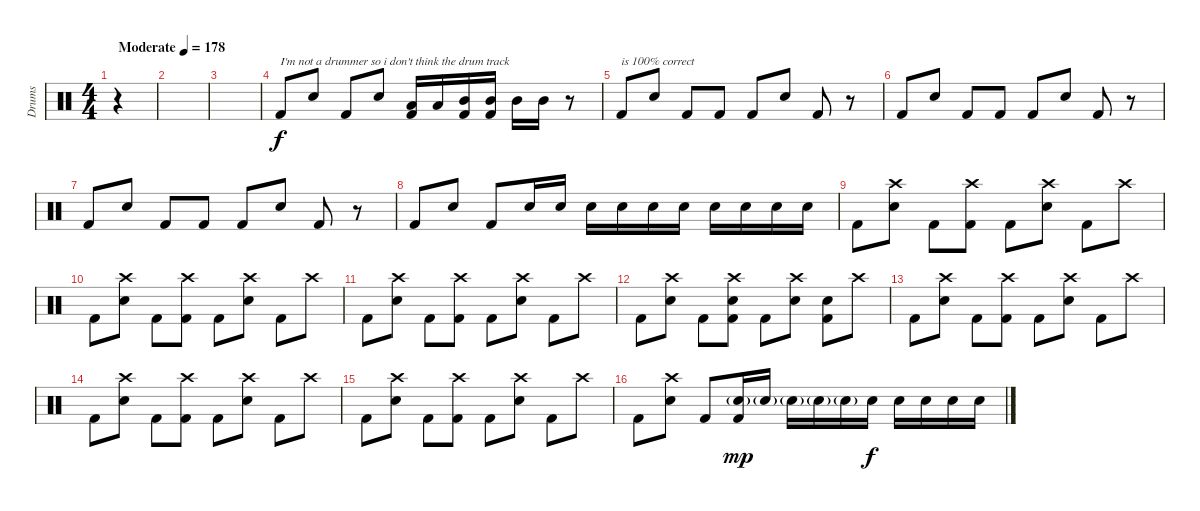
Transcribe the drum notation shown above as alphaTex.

\track ("Drums" "Drums") {instrument percussion}
\staff {score}
\articulation defaults
\ts (4 4)
\tempo (178 "Moderate")
\clef neutral
\ks c
r.4{dy f} |
|
|
"Kick (hit) 2".8{txt "I'm not a drummer so i don't think the drum track "} "Electric Snare (hit)".8 "Kick (hit) 2".8 "Electric Snare (hit)".8 ("Low Floor Tom (hit)" "Kick (hit) 2").16 "Low Floor Tom (hit)".16 ("Mid Tom (hit)" "Kick (hit) 2").16 ("Mid Tom (hit)" "Kick (hit) 2").16 "Mid Tom (hit)".16 "Mid Tom (hit)".16 r.8 |
"Kick (hit) 2".8{txt "is 100% correct"} "Electric Snare (hit)".8 "Kick (hit) 2".8 "Kick (hit) 2".8 "Kick (hit) 2".8 "Electric Snare (hit)".8 "Kick (hit) 2".8 r.8 |
"Kick (hit) 2".8 "Electric Snare (hit)".8 "Kick (hit) 2".8 "Kick (hit) 2".8 "Kick (hit) 2".8 "Electric Snare (hit)".8 "Kick (hit) 2".8 r.8 |
"Kick (hit) 2".8 "Electric Snare (hit)".8 "Kick (hit) 2".8 "Kick (hit) 2".8 "Kick (hit) 2".8 "Electric Snare (hit)".8 "Kick (hit) 2".8 r.8 |
"Kick (hit) 2".8 "Electric Snare (hit)".8 "Kick (hit) 2".8 "Electric Snare (hit)".16 "Electric Snare (hit)".16 "Electric Snare (hit)".16 "Electric Snare (hit)".16 "Electric Snare (hit)".16 "Electric Snare (hit)".16 "Electric Snare (hit)".16 "Electric Snare (hit)".16 "Electric Snare (hit)".16 "Electric Snare (hit)".16 |
"Kick (hit) 2".8 ("Crash high (hit)" "Electric Snare (hit)").8 "Kick (hit) 2".8 ("Crash high (hit)" "Kick (hit) 2").8 "Kick (hit) 2".8 ("Crash high (hit)" "Electric Snare (hit)").8 "Kick (hit) 2".8 "Crash high (hit)".8 |
"Kick (hit) 2".8 ("Crash high (hit)" "Electric Snare (hit)").8 "Kick (hit) 2".8 ("Crash high (hit)" "Kick (hit) 2").8 "Kick (hit) 2".8 ("Crash high (hit)" "Electric Snare (hit)").8 "Kick (hit) 2".8 "Crash high (hit)".8 |
"Kick (hit) 2".8 ("Crash high (hit)" "Electric Snare (hit)").8 "Kick (hit) 2".8 ("Crash high (hit)" "Kick (hit) 2").8 "Kick (hit) 2".8 ("Crash high (hit)" "Electric Snare (hit)").8 "Kick (hit) 2".8 "Crash high (hit)".8 |
"Kick (hit) 2".8 ("Crash high (hit)" "Electric Snare (hit)").8 "Kick (hit) 2".8 ("Crash high (hit)" "Electric Snare (hit)" "Kick (hit) 2").8 "Kick (hit) 2".8 ("Crash high (hit)" "Electric Snare (hit)").8 ("Electric Snare (hit)" "Kick (hit) 2").8 "Crash high (hit)".8 |
"Kick (hit) 2".8 ("Crash high (hit)" "Electric Snare (hit)").8 "Kick (hit) 2".8 ("Crash high (hit)" "Kick (hit) 2").8 "Kick (hit) 2".8 ("Crash high (hit)" "Electric Snare (hit)").8 "Kick (hit) 2".8 "Crash high (hit)".8 |
"Kick (hit) 2".8 ("Crash high (hit)" "Electric Snare (hit)").8 "Kick (hit) 2".8 ("Crash high (hit)" "Kick (hit) 2").8 "Kick (hit) 2".8 ("Crash high (hit)" "Electric Snare (hit)").8 "Kick (hit) 2".8 "Crash high (hit)".8 |
"Kick (hit) 2".8 ("Crash high (hit)" "Electric Snare (hit)").8 "Kick (hit) 2".8 ("Crash high (hit)" "Kick (hit) 2").8 "Kick (hit) 2".8 ("Crash high (hit)" "Electric Snare (hit)").8 "Kick (hit) 2".8 "Crash high (hit)".8 |
"Kick (hit) 2".8 ("Crash high (hit)" "Electric Snare (hit)").8 "Kick (hit) 2".8 ("Electric Snare (hit)"{g} "Kick (hit) 2").16{dy mp} "Electric Snare (hit)"{g}.16 "Electric Snare (hit)"{g}.16 "Electric Snare (hit)"{g}.16 "Electric Snare (hit)"{g}.16 "Electric Snare (hit)".16{dy f} "Electric Snare (hit)".16 "Electric Snare (hit)".16 "Electric Snare (hit)".16 "Electric Snare (hit)".16
